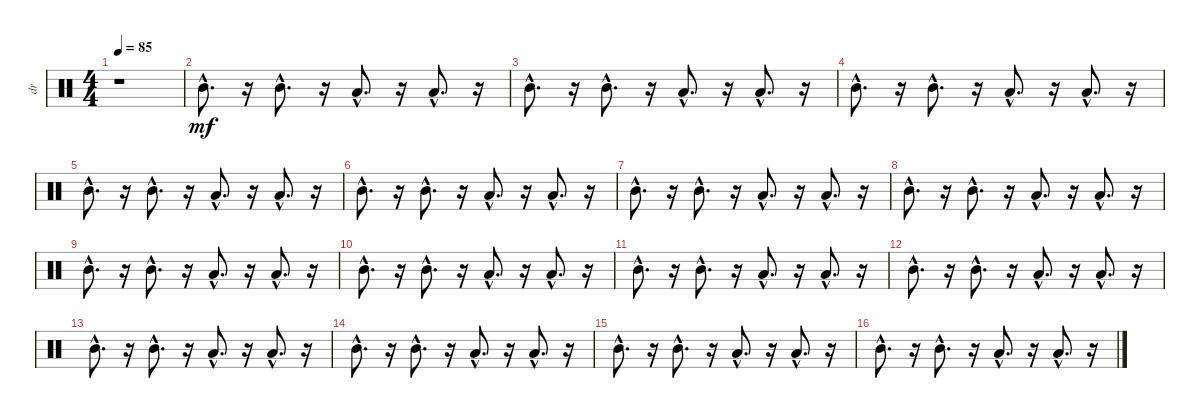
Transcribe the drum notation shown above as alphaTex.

\track ("dr" "dr") {instrument percussion}
\staff {score}
\articulation defaults
\ts (4 4)
\tempo 85
\clef neutral
\ks c
r.1{dy mf} |
"Mid Tom (hit)"{hac}.8{d} r.16 "Mid Tom (hit)"{hac}.8{d} r.16 "Low Tom (hit)"{hac}.8{d} r.16 "Low Tom (hit)"{hac}.8{d} r.16 |
"Mid Tom (hit)"{hac}.8{d} r.16 "Mid Tom (hit)"{hac}.8{d} r.16 "Low Tom (hit)"{hac}.8{d} r.16 "Low Tom (hit)"{hac}.8{d} r.16 |
"Mid Tom (hit)"{hac}.8{d} r.16 "Mid Tom (hit)"{hac}.8{d} r.16 "Low Tom (hit)"{hac}.8{d} r.16 "Low Tom (hit)"{hac}.8{d} r.16 |
"Mid Tom (hit)"{hac}.8{d} r.16 "Mid Tom (hit)"{hac}.8{d} r.16 "Low Tom (hit)"{hac}.8{d} r.16 "Low Tom (hit)"{hac}.8{d} r.16 |
"Mid Tom (hit)"{hac}.8{d} r.16 "Mid Tom (hit)"{hac}.8{d} r.16 "Low Tom (hit)"{hac}.8{d} r.16 "Low Tom (hit)"{hac}.8{d} r.16 |
"Mid Tom (hit)"{hac}.8{d} r.16 "Mid Tom (hit)"{hac}.8{d} r.16 "Low Tom (hit)"{hac}.8{d} r.16 "Low Tom (hit)"{hac}.8{d} r.16 |
"Mid Tom (hit)"{hac}.8{d} r.16 "Mid Tom (hit)"{hac}.8{d} r.16 "Low Tom (hit)"{hac}.8{d} r.16 "Low Tom (hit)"{hac}.8{d} r.16 |
"Mid Tom (hit)"{hac}.8{d} r.16 "Mid Tom (hit)"{hac}.8{d} r.16 "Low Tom (hit)"{hac}.8{d} r.16 "Low Tom (hit)"{hac}.8{d} r.16 |
"Mid Tom (hit)"{hac}.8{d} r.16 "Mid Tom (hit)"{hac}.8{d} r.16 "Low Tom (hit)"{hac}.8{d} r.16 "Low Tom (hit)"{hac}.8{d} r.16 |
"Mid Tom (hit)"{hac}.8{d} r.16 "Mid Tom (hit)"{hac}.8{d} r.16 "Low Tom (hit)"{hac}.8{d} r.16 "Low Tom (hit)"{hac}.8{d} r.16 |
"Mid Tom (hit)"{hac}.8{d} r.16 "Mid Tom (hit)"{hac}.8{d} r.16 "Low Tom (hit)"{hac}.8{d} r.16 "Low Tom (hit)"{hac}.8{d} r.16 |
"Mid Tom (hit)"{hac}.8{d} r.16 "Mid Tom (hit)"{hac}.8{d} r.16 "Low Tom (hit)"{hac}.8{d} r.16 "Low Tom (hit)"{hac}.8{d} r.16 |
"Mid Tom (hit)"{hac}.8{d} r.16 "Mid Tom (hit)"{hac}.8{d} r.16 "Low Tom (hit)"{hac}.8{d} r.16 "Low Tom (hit)"{hac}.8{d} r.16 |
"Mid Tom (hit)"{hac}.8{d} r.16 "Mid Tom (hit)"{hac}.8{d} r.16 "Low Tom (hit)"{hac}.8{d} r.16 "Low Tom (hit)"{hac}.8{d} r.16 |
"Mid Tom (hit)"{hac}.8{d} r.16 "Mid Tom (hit)"{hac}.8{d} r.16 "Low Tom (hit)"{hac}.8{d} r.16 "Low Tom (hit)"{hac}.8{d} r.16
